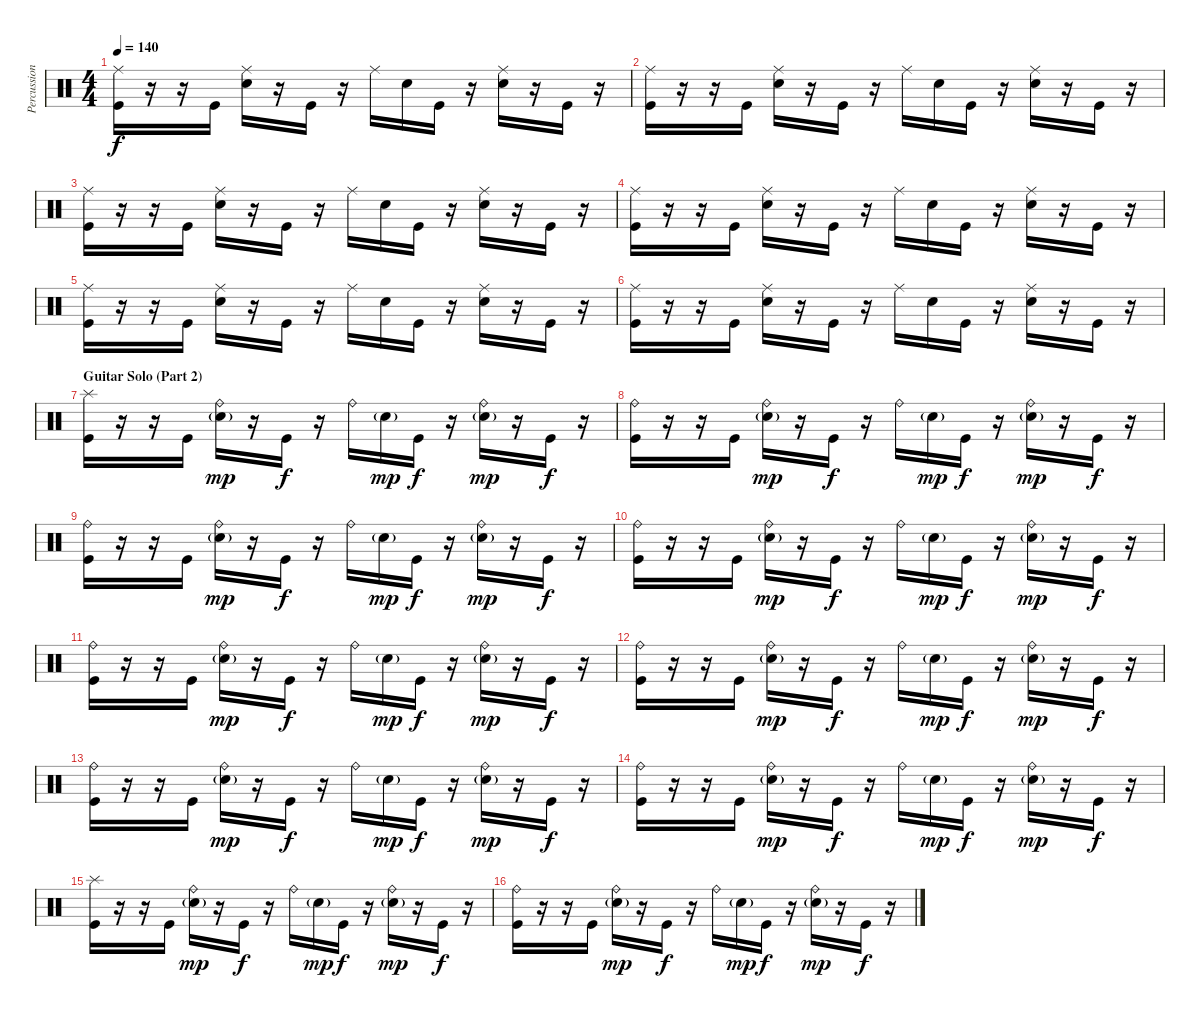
\track ("Percussion" "Percussion") {instrument percussion}
\staff {score}
\articulation defaults
\ts (4 4)
\tempo 140
\clef neutral
\ks c
("Ride (middle)" "Kick (hit)").16{dy f} r.16 r.16 "Kick (hit)".16 ("Ride (middle)" "Electric Snare (hit)").16 r.16 "Kick (hit)".16 r.16 "Ride (middle)".16 "Electric Snare (hit)".16 "Kick (hit)".16 r.16 ("Ride (middle)" "Electric Snare (hit)").16 r.16 "Kick (hit)".16 r.16 |
("Ride (middle)" "Kick (hit)").16 r.16 r.16 "Kick (hit)".16 ("Ride (middle)" "Electric Snare (hit)").16 r.16 "Kick (hit)".16 r.16 "Ride (middle)".16 "Electric Snare (hit)".16 "Kick (hit)".16 r.16 ("Ride (middle)" "Electric Snare (hit)").16 r.16 "Kick (hit)".16 r.16 |
("Ride (middle)" "Kick (hit)").16 r.16 r.16 "Kick (hit)".16 ("Ride (middle)" "Electric Snare (hit)").16 r.16 "Kick (hit)".16 r.16 "Ride (middle)".16 "Electric Snare (hit)".16 "Kick (hit)".16 r.16 ("Ride (middle)" "Electric Snare (hit)").16 r.16 "Kick (hit)".16 r.16 |
("Ride (middle)" "Kick (hit)").16 r.16 r.16 "Kick (hit)".16 ("Ride (middle)" "Electric Snare (hit)").16 r.16 "Kick (hit)".16 r.16 "Ride (middle)".16 "Electric Snare (hit)".16 "Kick (hit)".16 r.16 ("Ride (middle)" "Electric Snare (hit)").16 r.16 "Kick (hit)".16 r.16 |
("Ride (middle)" "Kick (hit)").16 r.16 r.16 "Kick (hit)".16 ("Ride (middle)" "Electric Snare (hit)").16 r.16 "Kick (hit)".16 r.16 "Ride (middle)".16 "Electric Snare (hit)".16 "Kick (hit)".16 r.16 ("Ride (middle)" "Electric Snare (hit)").16 r.16 "Kick (hit)".16 r.16 |
("Ride (middle)" "Kick (hit)").16 r.16 r.16 "Kick (hit)".16 ("Ride (middle)" "Electric Snare (hit)").16 r.16 "Kick (hit)".16 r.16 "Ride (middle)".16 "Electric Snare (hit)".16 "Kick (hit)".16 r.16 ("Ride (middle)" "Electric Snare (hit)").16 r.16 "Kick (hit)".16 r.16 |
\section ("" "Guitar Solo (Part 2)")
("Splash (hit)" "Kick (hit)").16 r.16 r.16 "Kick (hit)".16 ("Ride (bell)" "Electric Snare (hit)"{g}).16{dy mp} r.16 "Kick (hit)".16{dy f} r.16 "Ride (bell)".16 "Electric Snare (hit)"{g}.16{dy mp} "Kick (hit)".16{dy f} r.16 ("Ride (bell)" "Electric Snare (hit)"{g}).16{dy mp} r.16 "Kick (hit)".16{dy f} r.16 |
("Ride (bell)" "Kick (hit)").16 r.16 r.16 "Kick (hit)".16 ("Ride (bell)" "Electric Snare (hit)"{g}).16{dy mp} r.16 "Kick (hit)".16{dy f} r.16 "Ride (bell)".16 "Electric Snare (hit)"{g}.16{dy mp} "Kick (hit)".16{dy f} r.16 ("Ride (bell)" "Electric Snare (hit)"{g}).16{dy mp} r.16 "Kick (hit)".16{dy f} r.16 |
("Ride (bell)" "Kick (hit)").16 r.16 r.16 "Kick (hit)".16 ("Ride (bell)" "Electric Snare (hit)"{g}).16{dy mp} r.16 "Kick (hit)".16{dy f} r.16 "Ride (bell)".16 "Electric Snare (hit)"{g}.16{dy mp} "Kick (hit)".16{dy f} r.16 ("Ride (bell)" "Electric Snare (hit)"{g}).16{dy mp} r.16 "Kick (hit)".16{dy f} r.16 |
("Ride (bell)" "Kick (hit)").16 r.16 r.16 "Kick (hit)".16 ("Ride (bell)" "Electric Snare (hit)"{g}).16{dy mp} r.16 "Kick (hit)".16{dy f} r.16 "Ride (bell)".16 "Electric Snare (hit)"{g}.16{dy mp} "Kick (hit)".16{dy f} r.16 ("Ride (bell)" "Electric Snare (hit)"{g}).16{dy mp} r.16 "Kick (hit)".16{dy f} r.16 |
("Ride (bell)" "Kick (hit)").16 r.16 r.16 "Kick (hit)".16 ("Ride (bell)" "Electric Snare (hit)"{g}).16{dy mp} r.16 "Kick (hit)".16{dy f} r.16 "Ride (bell)".16 "Electric Snare (hit)"{g}.16{dy mp} "Kick (hit)".16{dy f} r.16 ("Ride (bell)" "Electric Snare (hit)"{g}).16{dy mp} r.16 "Kick (hit)".16{dy f} r.16 |
("Ride (bell)" "Kick (hit)").16 r.16 r.16 "Kick (hit)".16 ("Ride (bell)" "Electric Snare (hit)"{g}).16{dy mp} r.16 "Kick (hit)".16{dy f} r.16 "Ride (bell)".16 "Electric Snare (hit)"{g}.16{dy mp} "Kick (hit)".16{dy f} r.16 ("Ride (bell)" "Electric Snare (hit)"{g}).16{dy mp} r.16 "Kick (hit)".16{dy f} r.16 |
("Ride (bell)" "Kick (hit)").16 r.16 r.16 "Kick (hit)".16 ("Ride (bell)" "Electric Snare (hit)"{g}).16{dy mp} r.16 "Kick (hit)".16{dy f} r.16 "Ride (bell)".16 "Electric Snare (hit)"{g}.16{dy mp} "Kick (hit)".16{dy f} r.16 ("Ride (bell)" "Electric Snare (hit)"{g}).16{dy mp} r.16 "Kick (hit)".16{dy f} r.16 |
("Ride (bell)" "Kick (hit)").16 r.16 r.16 "Kick (hit)".16 ("Ride (bell)" "Electric Snare (hit)"{g}).16{dy mp} r.16 "Kick (hit)".16{dy f} r.16 "Ride (bell)".16 "Electric Snare (hit)"{g}.16{dy mp} "Kick (hit)".16{dy f} r.16 ("Ride (bell)" "Electric Snare (hit)"{g}).16{dy mp} r.16 "Kick (hit)".16{dy f} r.16 |
("Splash (hit)" "Kick (hit)").16 r.16 r.16 "Kick (hit)".16 ("Ride (bell)" "Electric Snare (hit)"{g}).16{dy mp} r.16 "Kick (hit)".16{dy f} r.16 "Ride (bell)".16 "Electric Snare (hit)"{g}.16{dy mp} "Kick (hit)".16{dy f} r.16 ("Ride (bell)" "Electric Snare (hit)"{g}).16{dy mp} r.16 "Kick (hit)".16{dy f} r.16 |
("Ride (bell)" "Kick (hit)").16 r.16 r.16 "Kick (hit)".16 ("Ride (bell)" "Electric Snare (hit)"{g}).16{dy mp} r.16 "Kick (hit)".16{dy f} r.16 "Ride (bell)".16 "Electric Snare (hit)"{g}.16{dy mp} "Kick (hit)".16{dy f} r.16 ("Ride (bell)" "Electric Snare (hit)"{g}).16{dy mp} r.16 "Kick (hit)".16{dy f} r.16
